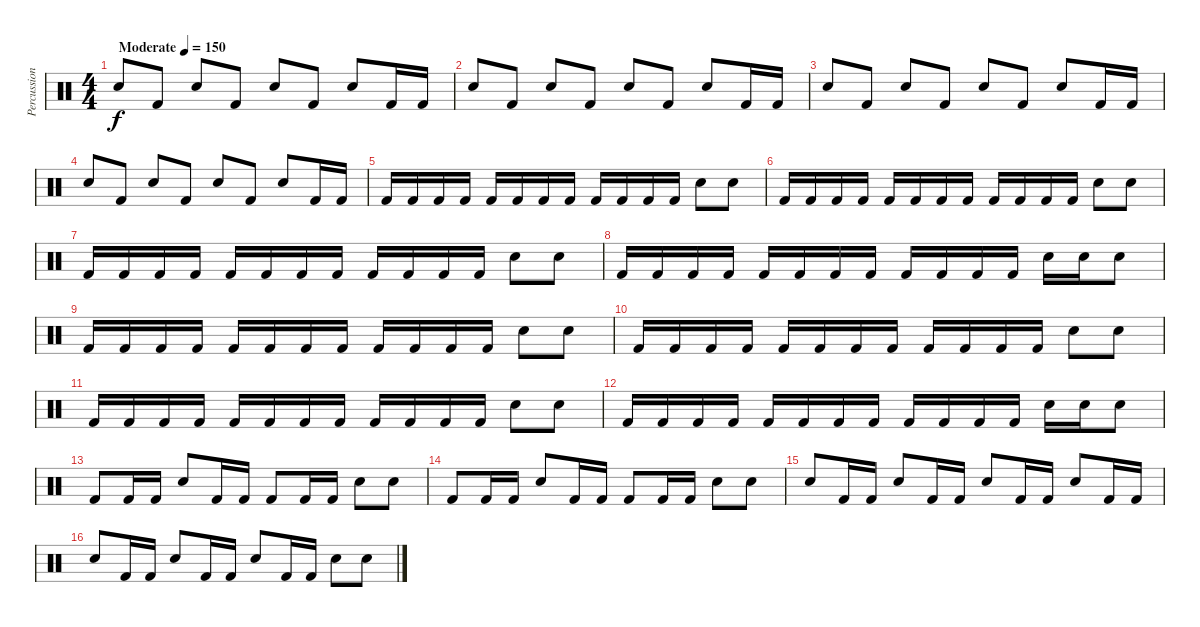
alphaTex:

\track ("Percussion" "Percussion") {instrument percussion}
\staff {score}
\articulation defaults
\ts (4 4)
\tempo (150 "Moderate")
\clef neutral
\ks c "Snare (hit) 2".8{dy f} "Kick (hit) 2".8 "Snare (hit) 2".8 "Kick (hit) 2".8 "Snare (hit) 2".8 "Kick (hit) 2".8 "Snare (hit) 2".8 "Kick (hit) 2".16 "Kick (hit) 2".16
|
"Snare (hit) 2".8 "Kick (hit) 2".8 "Snare (hit) 2".8 "Kick (hit) 2".8 "Snare (hit) 2".8 "Kick (hit) 2".8 "Snare (hit) 2".8 "Kick (hit) 2".16 "Kick (hit) 2".16 |
"Snare (hit) 2".8 "Kick (hit) 2".8 "Snare (hit) 2".8 "Kick (hit) 2".8 "Snare (hit) 2".8 "Kick (hit) 2".8 "Snare (hit) 2".8 "Kick (hit) 2".16 "Kick (hit) 2".16 |
"Snare (hit) 2".8 "Kick (hit) 2".8 "Snare (hit) 2".8 "Kick (hit) 2".8 "Snare (hit) 2".8 "Kick (hit) 2".8 "Snare (hit) 2".8 "Kick (hit) 2".16 "Kick (hit) 2".16 |
"Kick (hit) 2".16 "Kick (hit) 2".16 "Kick (hit) 2".16 "Kick (hit) 2".16 "Kick (hit) 2".16 "Kick (hit) 2".16 "Kick (hit) 2".16 "Kick (hit) 2".16 "Kick (hit) 2".16 "Kick (hit) 2".16 "Kick (hit) 2".16 "Kick (hit) 2".16 "Snare (hit) 2".8 "Snare (hit) 2".8 |
"Kick (hit) 2".16 "Kick (hit) 2".16 "Kick (hit) 2".16 "Kick (hit) 2".16 "Kick (hit) 2".16 "Kick (hit) 2".16 "Kick (hit) 2".16 "Kick (hit) 2".16 "Kick (hit) 2".16 "Kick (hit) 2".16 "Kick (hit) 2".16 "Kick (hit) 2".16 "Snare (hit) 2".8 "Snare (hit) 2".8 |
"Kick (hit) 2".16 "Kick (hit) 2".16 "Kick (hit) 2".16 "Kick (hit) 2".16 "Kick (hit) 2".16 "Kick (hit) 2".16 "Kick (hit) 2".16 "Kick (hit) 2".16 "Kick (hit) 2".16 "Kick (hit) 2".16 "Kick (hit) 2".16 "Kick (hit) 2".16 "Snare (hit) 2".8 "Snare (hit) 2".8 |
"Kick (hit) 2".16 "Kick (hit) 2".16 "Kick (hit) 2".16 "Kick (hit) 2".16 "Kick (hit) 2".16 "Kick (hit) 2".16 "Kick (hit) 2".16 "Kick (hit) 2".16 "Kick (hit) 2".16 "Kick (hit) 2".16 "Kick (hit) 2".16 "Kick (hit) 2".16 "Snare (hit) 2".16 "Snare (hit) 2".16 "Snare (hit) 2".8 |
"Kick (hit) 2".16 "Kick (hit) 2".16 "Kick (hit) 2".16 "Kick (hit) 2".16 "Kick (hit) 2".16 "Kick (hit) 2".16 "Kick (hit) 2".16 "Kick (hit) 2".16 "Kick (hit) 2".16 "Kick (hit) 2".16 "Kick (hit) 2".16 "Kick (hit) 2".16 "Snare (hit) 2".8 "Snare (hit) 2".8 |
"Kick (hit) 2".16 "Kick (hit) 2".16 "Kick (hit) 2".16 "Kick (hit) 2".16 "Kick (hit) 2".16 "Kick (hit) 2".16 "Kick (hit) 2".16 "Kick (hit) 2".16 "Kick (hit) 2".16 "Kick (hit) 2".16 "Kick (hit) 2".16 "Kick (hit) 2".16 "Snare (hit) 2".8 "Snare (hit) 2".8 |
"Kick (hit) 2".16 "Kick (hit) 2".16 "Kick (hit) 2".16 "Kick (hit) 2".16 "Kick (hit) 2".16 "Kick (hit) 2".16 "Kick (hit) 2".16 "Kick (hit) 2".16 "Kick (hit) 2".16 "Kick (hit) 2".16 "Kick (hit) 2".16 "Kick (hit) 2".16 "Snare (hit) 2".8 "Snare (hit) 2".8 |
"Kick (hit) 2".16 "Kick (hit) 2".16 "Kick (hit) 2".16 "Kick (hit) 2".16 "Kick (hit) 2".16 "Kick (hit) 2".16 "Kick (hit) 2".16 "Kick (hit) 2".16 "Kick (hit) 2".16 "Kick (hit) 2".16 "Kick (hit) 2".16 "Kick (hit) 2".16 "Snare (hit) 2".16 "Snare (hit) 2".16 "Snare (hit) 2".8 |
"Kick (hit) 2".8 "Kick (hit) 2".16 "Kick (hit) 2".16 "Snare (hit) 2".8 "Kick (hit) 2".16 "Kick (hit) 2".16 "Kick (hit) 2".8 "Kick (hit) 2".16 "Kick (hit) 2".16 "Snare (hit) 2".8 "Snare (hit) 2".8 |
"Kick (hit) 2".8 "Kick (hit) 2".16 "Kick (hit) 2".16 "Snare (hit) 2".8 "Kick (hit) 2".16 "Kick (hit) 2".16 "Kick (hit) 2".8 "Kick (hit) 2".16 "Kick (hit) 2".16 "Snare (hit) 2".8 "Snare (hit) 2".8 |
"Snare (hit) 2".8 "Kick (hit) 2".16 "Kick (hit) 2".16 "Snare (hit) 2".8 "Kick (hit) 2".16 "Kick (hit) 2".16 "Snare (hit) 2".8 "Kick (hit) 2".16 "Kick (hit) 2".16 "Snare (hit) 2".8 "Kick (hit) 2".16 "Kick (hit) 2".16 |
"Snare (hit) 2".8 "Kick (hit) 2".16 "Kick (hit) 2".16 "Snare (hit) 2".8 "Kick (hit) 2".16 "Kick (hit) 2".16 "Snare (hit) 2".8 "Kick (hit) 2".16 "Kick (hit) 2".16 "Snare (hit) 2".8 "Snare (hit) 2".8
